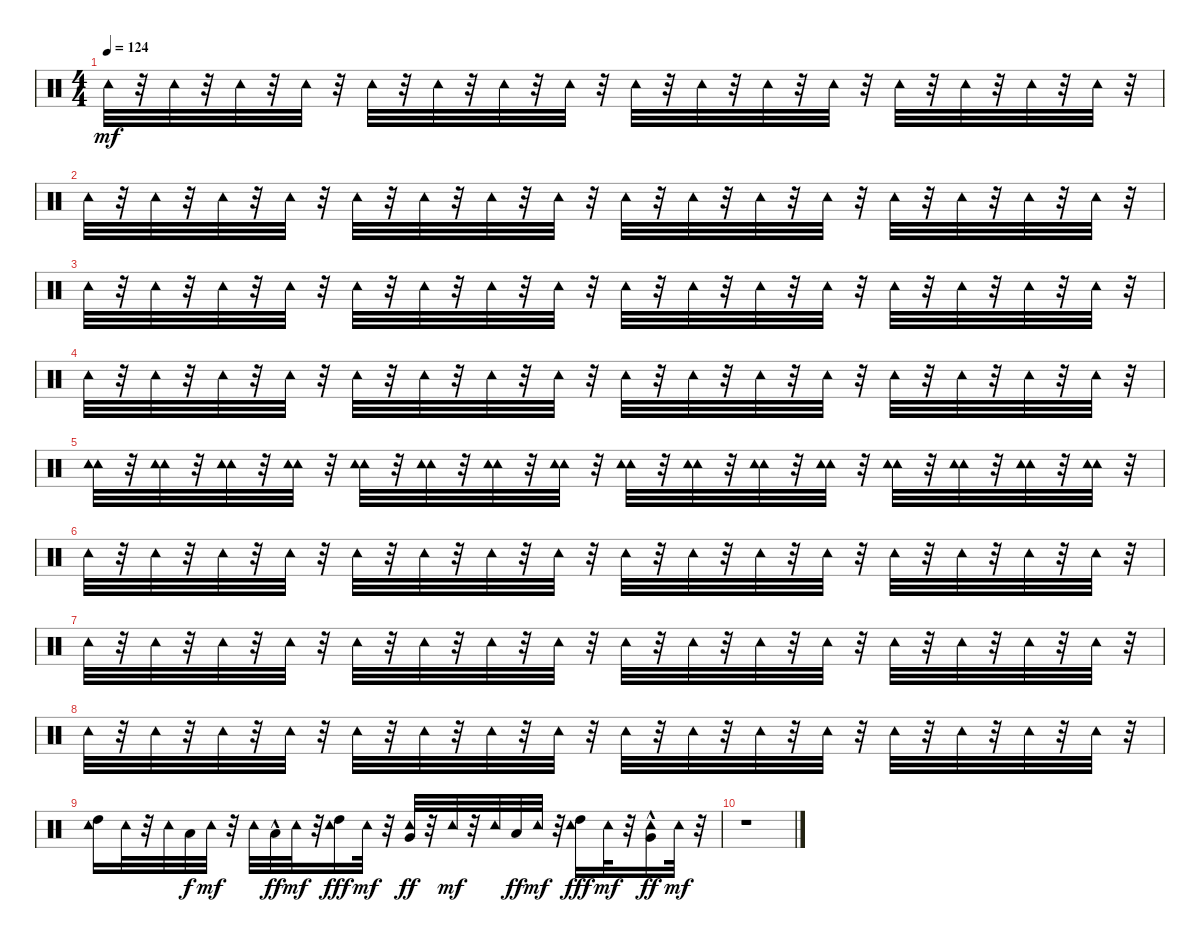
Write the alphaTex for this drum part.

\track "" {instrument percussion}
\staff {score}
\articulation defaults
\ts (4 4)
\tempo 124
\clef neutral
\ks c "Tambourine (hit)".32{dy mf}
r.32 "Tambourine (hit)".32 r.32 "Tambourine (hit)".32 r.32 "Tambourine (hit)".32 r.32 "Tambourine (hit)".32 r.32 "Tambourine (hit)".32 r.32 "Tambourine (hit)".32 r.32 "Tambourine (hit)".32 r.32 "Tambourine (hit)".32 r.32 "Tambourine (hit)".32 r.32 "Tambourine (hit)".32 r.32 "Tambourine (hit)".32 r.32 "Tambourine (hit)".32 r.32 "Tambourine (hit)".32 r.32 "Tambourine (hit)".32 r.32 "Tambourine (hit)".32 r.32 |
"Tambourine (hit)".32 r.32 "Tambourine (hit)".32 r.32 "Tambourine (hit)".32 r.32 "Tambourine (hit)".32 r.32 "Tambourine (hit)".32 r.32 "Tambourine (hit)".32 r.32 "Tambourine (hit)".32 r.32 "Tambourine (hit)".32 r.32 "Tambourine (hit)".32 r.32 "Tambourine (hit)".32 r.32 "Tambourine (hit)".32 r.32 "Tambourine (hit)".32 r.32 "Tambourine (hit)".32 r.32 "Tambourine (hit)".32 r.32 "Tambourine (hit)".32 r.32 "Tambourine (hit)".32 r.32 |
"Tambourine (hit)".32 r.32 "Tambourine (hit)".32 r.32 "Tambourine (hit)".32 r.32 "Tambourine (hit)".32 r.32 "Tambourine (hit)".32 r.32 "Tambourine (hit)".32 r.32 "Tambourine (hit)".32 r.32 "Tambourine (hit)".32 r.32 "Tambourine (hit)".32 r.32 "Tambourine (hit)".32 r.32 "Tambourine (hit)".32 r.32 "Tambourine (hit)".32 r.32 "Tambourine (hit)".32 r.32 "Tambourine (hit)".32 r.32 "Tambourine (hit)".32 r.32 "Tambourine (hit)".32 r.32 |
"Tambourine (hit)".32 r.32 "Tambourine (hit)".32 r.32 "Tambourine (hit)".32 r.32 "Tambourine (hit)".32 r.32 "Tambourine (hit)".32 r.32 "Tambourine (hit)".32 r.32 "Tambourine (hit)".32 r.32 "Tambourine (hit)".32 r.32 "Tambourine (hit)".32 r.32 "Tambourine (hit)".32 r.32 "Tambourine (hit)".32 r.32 "Tambourine (hit)".32 r.32 "Tambourine (hit)".32 r.32 "Tambourine (hit)".32 r.32 "Tambourine (hit)".32 r.32 "Tambourine (hit)".32 r.32 |
("Tambourine (hit)" "Tambourine (hit)").32 r.32 ("Tambourine (hit)" "Tambourine (hit)").32 r.32 ("Tambourine (hit)" "Tambourine (hit)").32 r.32 ("Tambourine (hit)" "Tambourine (hit)").32 r.32 ("Tambourine (hit)" "Tambourine (hit)").32 r.32 ("Tambourine (hit)" "Tambourine (hit)").32 r.32 ("Tambourine (hit)" "Tambourine (hit)").32 r.32 ("Tambourine (hit)" "Tambourine (hit)").32 r.32 ("Tambourine (hit)" "Tambourine (hit)").32 r.32 ("Tambourine (hit)" "Tambourine (hit)").32 r.32 ("Tambourine (hit)" "Tambourine (hit)").32 r.32 ("Tambourine (hit)" "Tambourine (hit)").32 r.32 ("Tambourine (hit)" "Tambourine (hit)").32 r.32 ("Tambourine (hit)" "Tambourine (hit)").32 r.32 ("Tambourine (hit)" "Tambourine (hit)").32 r.32 ("Tambourine (hit)" "Tambourine (hit)").32 r.32 |
"Tambourine (hit)".32 r.32 "Tambourine (hit)".32 r.32 "Tambourine (hit)".32 r.32 "Tambourine (hit)".32 r.32 "Tambourine (hit)".32 r.32 "Tambourine (hit)".32 r.32 "Tambourine (hit)".32 r.32 "Tambourine (hit)".32 r.32 "Tambourine (hit)".32 r.32 "Tambourine (hit)".32 r.32 "Tambourine (hit)".32 r.32 "Tambourine (hit)".32 r.32 "Tambourine (hit)".32 r.32 "Tambourine (hit)".32 r.32 "Tambourine (hit)".32 r.32 "Tambourine (hit)".32 r.32 |
"Tambourine (hit)".32 r.32 "Tambourine (hit)".32 r.32 "Tambourine (hit)".32 r.32 "Tambourine (hit)".32 r.32 "Tambourine (hit)".32 r.32 "Tambourine (hit)".32 r.32 "Tambourine (hit)".32 r.32 "Tambourine (hit)".32 r.32 "Tambourine (hit)".32 r.32 "Tambourine (hit)".32 r.32 "Tambourine (hit)".32 r.32 "Tambourine (hit)".32 r.32 "Tambourine (hit)".32 r.32 "Tambourine (hit)".32 r.32 "Tambourine (hit)".32 r.32 "Tambourine (hit)".32 r.32 |
"Tambourine (hit)".32 r.32 "Tambourine (hit)".32 r.32 "Tambourine (hit)".32 r.32 "Tambourine (hit)".32 r.32 "Tambourine (hit)".32 r.32 "Tambourine (hit)".32 r.32 "Tambourine (hit)".32 r.32 "Tambourine (hit)".32 r.32 "Tambourine (hit)".32 r.32 "Tambourine (hit)".32 r.32 "Tambourine (hit)".32 r.32 "Tambourine (hit)".32 r.32 "Tambourine (hit)".32 r.32 "Tambourine (hit)".32 r.32 "Tambourine (hit)".32 r.32 "Tambourine (hit)".32 r.32 |
("High Tom (hit)" "Tambourine (hit)").16 "Tambourine (hit)".32 r.32 "Tambourine (hit)".32 "Low Floor Tom (hit)".32{dy f} "Tambourine (hit)".32{dy mf} r.32 "Tambourine (hit)".32 "Low Floor Tom (hit)"{hac}.32{dy ff} "Tambourine (hit)".32{dy mf} r.32 ("Tambourine (hit)" "High Tom (hit)").16{dy fff} "Tambourine (hit)".32{dy mf} r.32 ("Tambourine (hit)" "Very Low Tom (hit)").32{dy ff} r.32 "Tambourine (hit)".32{dy mf} r.32 "Tambourine (hit)".32 "Low Floor Tom (hit)".32{dy ff} "Tambourine (hit)".32{dy mf} r.32 ("Tambourine (hit)" "High Tom (hit)").16{dy fff} "Tambourine (hit)".32{dy mf} r.32 ("Tambourine (hit)" "Very Low Tom (hit)"{hac}).16{dy ff} "Tambourine (hit)".32{dy mf} r.32 |
r.1
